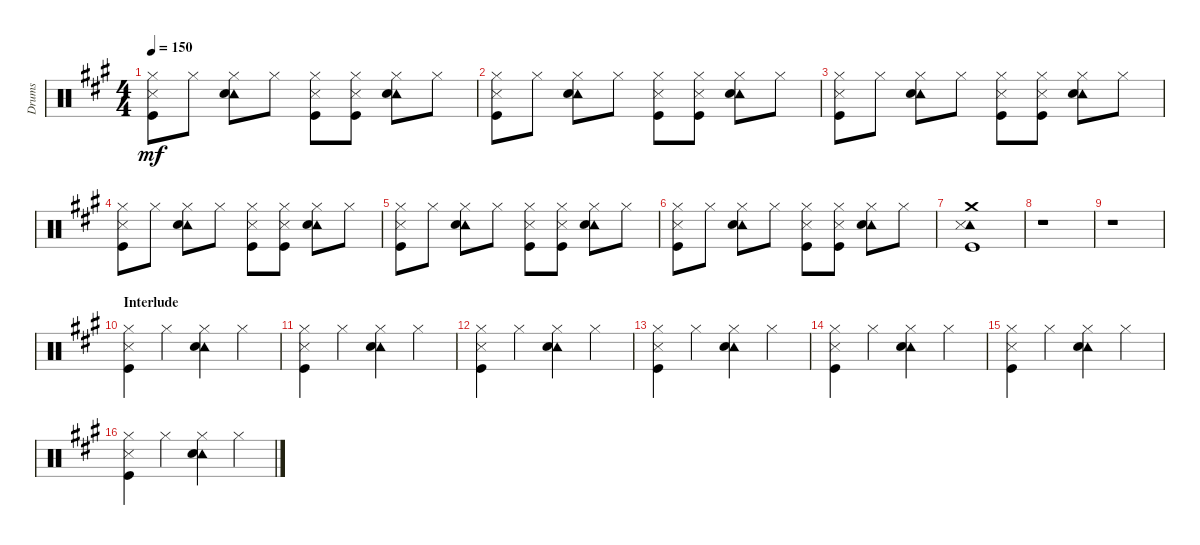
\track ("Drums" "Drums") {instrument percussion}
\staff {score}
\articulation defaults
\ts (4 4)
\tempo 150
\clef neutral
\ks a
("Hi-Hat (closed)" "Metronome (hit)" "Kick (hit)").8{dy mf} "Hi-Hat (closed)".8 ("Tambourine (hit)" "Hi-Hat (closed)" "Electric Snare (hit)").8 "Hi-Hat (closed)".8 ("Hi-Hat (closed)" "Metronome (hit)" "Kick (hit)").8 ("Hi-Hat (closed)" "Metronome (hit)" "Kick (hit)").8 ("Tambourine (hit)" "Hi-Hat (closed)" "Electric Snare (hit)").8 "Hi-Hat (closed)".8 |
("Hi-Hat (closed)" "Metronome (hit)" "Kick (hit)").8 "Hi-Hat (closed)".8 ("Tambourine (hit)" "Hi-Hat (closed)" "Electric Snare (hit)").8 "Hi-Hat (closed)".8 ("Hi-Hat (closed)" "Metronome (hit)" "Kick (hit)").8 ("Hi-Hat (closed)" "Metronome (hit)" "Kick (hit)").8 ("Tambourine (hit)" "Hi-Hat (closed)" "Electric Snare (hit)").8 "Hi-Hat (closed)".8 |
("Hi-Hat (closed)" "Metronome (hit)" "Kick (hit)").8 "Hi-Hat (closed)".8 ("Tambourine (hit)" "Hi-Hat (closed)" "Electric Snare (hit)").8 "Hi-Hat (closed)".8 ("Hi-Hat (closed)" "Metronome (hit)" "Kick (hit)").8 ("Hi-Hat (closed)" "Metronome (hit)" "Kick (hit)").8 ("Tambourine (hit)" "Hi-Hat (closed)" "Electric Snare (hit)").8 "Hi-Hat (closed)".8 |
("Hi-Hat (closed)" "Metronome (hit)" "Kick (hit)").8 "Hi-Hat (closed)".8 ("Tambourine (hit)" "Hi-Hat (closed)" "Electric Snare (hit)").8 "Hi-Hat (closed)".8 ("Hi-Hat (closed)" "Metronome (hit)" "Kick (hit)").8 ("Hi-Hat (closed)" "Metronome (hit)" "Kick (hit)").8 ("Tambourine (hit)" "Hi-Hat (closed)" "Electric Snare (hit)").8 "Hi-Hat (closed)".8 |
("Hi-Hat (closed)" "Metronome (hit)" "Kick (hit)").8 "Hi-Hat (closed)".8 ("Tambourine (hit)" "Hi-Hat (closed)" "Electric Snare (hit)").8 "Hi-Hat (closed)".8 ("Hi-Hat (closed)" "Metronome (hit)" "Kick (hit)").8 ("Hi-Hat (closed)" "Metronome (hit)" "Kick (hit)").8 ("Tambourine (hit)" "Hi-Hat (closed)" "Electric Snare (hit)").8 "Hi-Hat (closed)".8 |
("Hi-Hat (closed)" "Metronome (hit)" "Kick (hit)").8 "Hi-Hat (closed)".8 ("Tambourine (hit)" "Hi-Hat (closed)" "Electric Snare (hit)").8 "Hi-Hat (closed)".8 ("Hi-Hat (closed)" "Metronome (hit)" "Kick (hit)").8 ("Hi-Hat (closed)" "Metronome (hit)" "Kick (hit)").8 ("Tambourine (hit)" "Hi-Hat (closed)" "Electric Snare (hit)").8 "Hi-Hat (closed)".8 |
("Tambourine (hit)" "Crash medium (hit)" "Metronome (hit)" "Kick (hit)").1 |
r.1 |
r.1 |
\section ("" "Interlude")
("Hi-Hat (closed)" "Metronome (hit)" "Kick (hit)").4 "Hi-Hat (closed)".4 ("Tambourine (hit)" "Hi-Hat (closed)" "Electric Snare (hit)").4 "Hi-Hat (closed)".4 |
("Hi-Hat (closed)" "Metronome (hit)" "Kick (hit)").4 "Hi-Hat (closed)".4 ("Tambourine (hit)" "Hi-Hat (closed)" "Electric Snare (hit)").4 "Hi-Hat (closed)".4 |
("Hi-Hat (closed)" "Metronome (hit)" "Kick (hit)").4 "Hi-Hat (closed)".4 ("Tambourine (hit)" "Hi-Hat (closed)" "Electric Snare (hit)").4 "Hi-Hat (closed)".4 |
("Hi-Hat (closed)" "Metronome (hit)" "Kick (hit)").4 "Hi-Hat (closed)".4 ("Tambourine (hit)" "Hi-Hat (closed)" "Electric Snare (hit)").4 "Hi-Hat (closed)".4 |
("Hi-Hat (closed)" "Metronome (hit)" "Kick (hit)").4 "Hi-Hat (closed)".4 ("Tambourine (hit)" "Hi-Hat (closed)" "Electric Snare (hit)").4 "Hi-Hat (closed)".4 |
("Hi-Hat (closed)" "Metronome (hit)" "Kick (hit)").4 "Hi-Hat (closed)".4 ("Tambourine (hit)" "Hi-Hat (closed)" "Electric Snare (hit)").4 "Hi-Hat (closed)".4 |
("Hi-Hat (closed)" "Metronome (hit)" "Kick (hit)").4 "Hi-Hat (closed)".4 ("Tambourine (hit)" "Hi-Hat (closed)" "Electric Snare (hit)").4 "Hi-Hat (closed)".4
